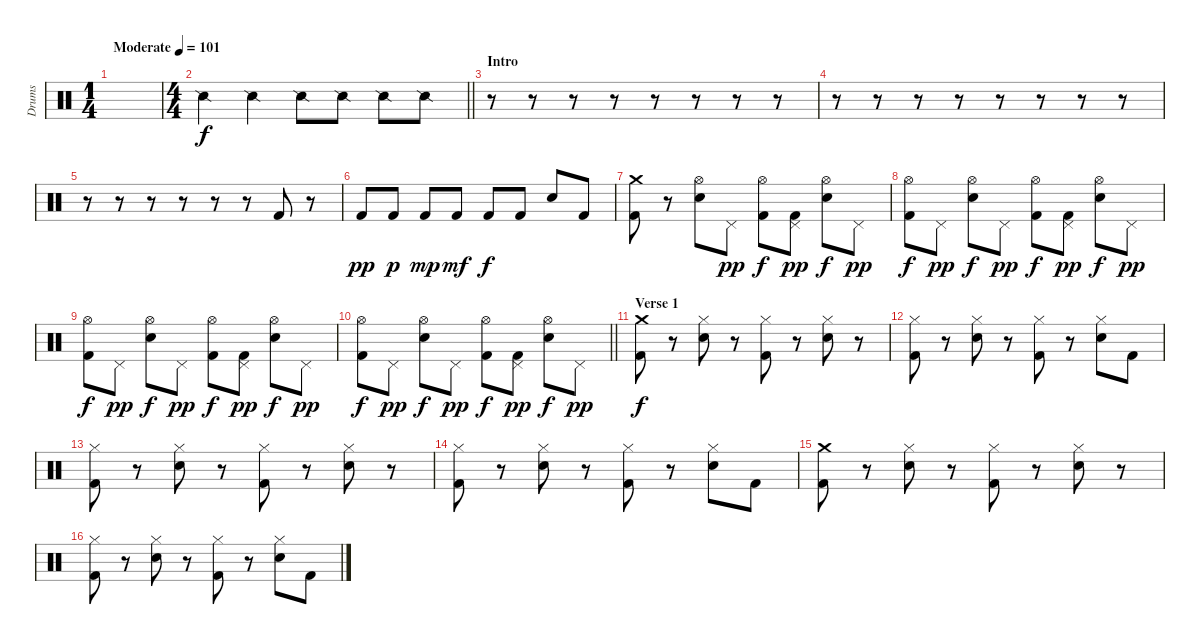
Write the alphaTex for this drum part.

\track ("Drums" "Drums") {instrument percussion}
\staff {score}
\articulation defaults
\ts (1 4)
\tempo (101 "Moderate")
\clef neutral
\ks c
|
\ts (4 4)
\barLineRight lightlight "Snare (side stick) 2".4 "Snare (side stick) 2".4 "Snare (side stick) 2".8 "Snare (side stick) 2".8 "Snare (side stick) 2".8 "Snare (side stick) 2".8
|
\section ("" "Intro")
r.8 r.8 r.8 r.8 r.8 r.8 r.8 r.8 |
r.8 r.8 r.8 r.8 r.8 r.8 r.8 r.8 |
r.8 r.8 r.8 r.8 r.8 r.8 "Kick (hit) 2".8 r.8 |
"Kick (hit) 2".8{dy pp} "Kick (hit) 2".8{dy p} "Kick (hit) 2".8{dy mp} "Kick (hit) 2".8{dy mf} "Kick (hit) 2".8{dy f} "Kick (hit) 2".8 "Snare (hit) 2".8 "Kick (hit) 2".8 |
("Crash medium (hit)" "Kick (hit) 2").8 r.8 ("Hi-Hat (open)" "Snare (hit) 2").8 "Pedal Hi-Hat (hit)".8{dy pp} ("Hi-Hat (open)" "Kick (hit) 2").8{dy f} ("Pedal Hi-Hat (hit)" "Kick (hit) 2").8{dy pp} ("Hi-Hat (open)" "Snare (hit) 2").8{dy f} "Pedal Hi-Hat (hit)".8{dy pp} |
("Hi-Hat (open)" "Kick (hit) 2").8{dy f} "Pedal Hi-Hat (hit)".8{dy pp} ("Hi-Hat (open)" "Snare (hit) 2").8{dy f} "Pedal Hi-Hat (hit)".8{dy pp} ("Hi-Hat (open)" "Kick (hit) 2").8{dy f} ("Pedal Hi-Hat (hit)" "Kick (hit) 2").8{dy pp} ("Hi-Hat (open)" "Snare (hit) 2").8{dy f} "Pedal Hi-Hat (hit)".8{dy pp} |
("Hi-Hat (open)" "Kick (hit) 2").8{dy f} "Pedal Hi-Hat (hit)".8{dy pp} ("Hi-Hat (open)" "Snare (hit) 2").8{dy f} "Pedal Hi-Hat (hit)".8{dy pp} ("Hi-Hat (open)" "Kick (hit) 2").8{dy f} ("Pedal Hi-Hat (hit)" "Kick (hit) 2").8{dy pp} ("Hi-Hat (open)" "Snare (hit) 2").8{dy f} "Pedal Hi-Hat (hit)".8{dy pp} |
\barLineRight lightlight
("Hi-Hat (open)" "Kick (hit) 2").8{dy f} "Pedal Hi-Hat (hit)".8{dy pp} ("Hi-Hat (open)" "Snare (hit) 2").8{dy f} "Pedal Hi-Hat (hit)".8{dy pp} ("Hi-Hat (open)" "Kick (hit) 2").8{dy f} ("Pedal Hi-Hat (hit)" "Kick (hit) 2").8{dy pp} ("Hi-Hat (open)" "Snare (hit) 2").8{dy f} "Pedal Hi-Hat (hit)".8{dy pp} |
\section ("" "Verse 1")
("Crash medium (hit)" "Kick (hit) 2").8{dy f} r.8 ("Hi-Hat (closed)" "Snare (hit) 2").8 r.8 ("Hi-Hat (closed)" "Kick (hit) 2").8 r.8 ("Hi-Hat (closed)" "Snare (hit) 2").8 r.8 |
("Hi-Hat (closed)" "Kick (hit) 2").8 r.8 ("Hi-Hat (closed)" "Snare (hit) 2").8 r.8 ("Hi-Hat (closed)" "Kick (hit) 2").8 r.8 ("Hi-Hat (closed)" "Snare (hit) 2").8 "Kick (hit) 2".8 |
("Hi-Hat (closed)" "Kick (hit) 2").8 r.8 ("Hi-Hat (closed)" "Snare (hit) 2").8 r.8 ("Hi-Hat (closed)" "Kick (hit) 2").8 r.8 ("Hi-Hat (closed)" "Snare (hit) 2").8 r.8 |
("Hi-Hat (closed)" "Kick (hit) 2").8 r.8 ("Hi-Hat (closed)" "Snare (hit) 2").8 r.8 ("Hi-Hat (closed)" "Kick (hit) 2").8 r.8 ("Hi-Hat (closed)" "Snare (hit) 2").8 "Kick (hit) 2".8 |
("Crash medium (hit)" "Kick (hit) 2").8 r.8 ("Hi-Hat (closed)" "Snare (hit) 2").8 r.8 ("Hi-Hat (closed)" "Kick (hit) 2").8 r.8 ("Hi-Hat (closed)" "Snare (hit) 2").8 r.8 |
("Hi-Hat (closed)" "Kick (hit) 2").8 r.8 ("Hi-Hat (closed)" "Snare (hit) 2").8 r.8 ("Hi-Hat (closed)" "Kick (hit) 2").8 r.8 ("Hi-Hat (closed)" "Snare (hit) 2").8 "Kick (hit) 2".8
